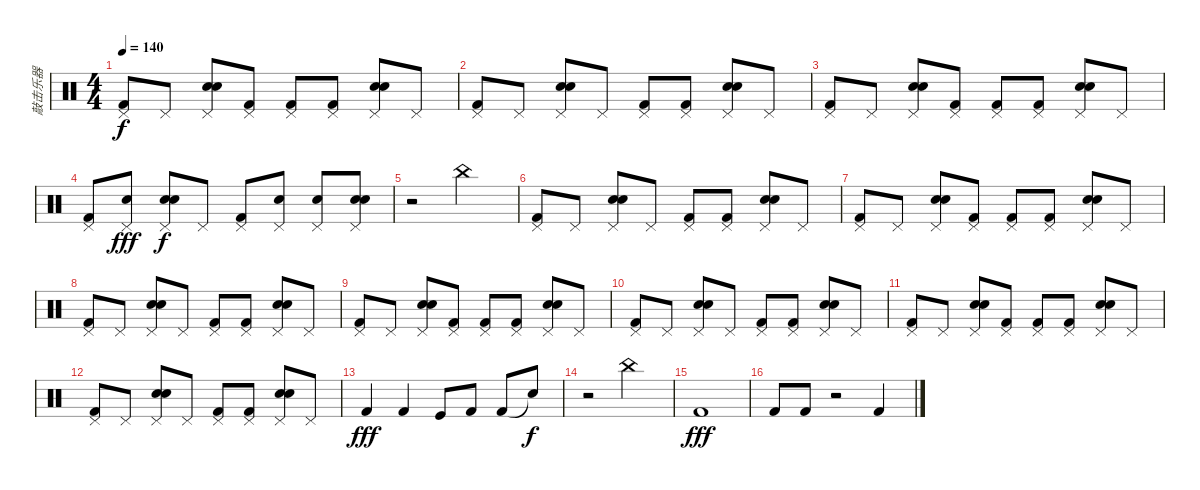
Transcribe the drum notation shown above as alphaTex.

\track ("敲击乐器" "敲击乐器") {instrument percussion}
\staff {score}
\articulation defaults
\ts (4 4)
\tempo 140
\clef neutral
\ks c
("Kick (hit) 2" "Pedal Hi-Hat (hit)").8{dy f} "Pedal Hi-Hat (hit)".8 ("Snare (hit) 2" "Electric Snare (hit)" "Pedal Hi-Hat (hit)").8 ("Kick (hit) 2" "Pedal Hi-Hat (hit)").8 ("Kick (hit) 2" "Pedal Hi-Hat (hit)").8 ("Kick (hit) 2" "Pedal Hi-Hat (hit)").8 ("Snare (hit) 2" "Electric Snare (hit)" "Pedal Hi-Hat (hit)").8 "Pedal Hi-Hat (hit)".8 |
("Kick (hit) 2" "Pedal Hi-Hat (hit)").8 "Pedal Hi-Hat (hit)".8 ("Snare (hit) 2" "Electric Snare (hit)" "Pedal Hi-Hat (hit)").8 "Pedal Hi-Hat (hit)".8 ("Kick (hit) 2" "Pedal Hi-Hat (hit)").8 ("Kick (hit) 2" "Pedal Hi-Hat (hit)").8 ("Snare (hit) 2" "Electric Snare (hit)" "Pedal Hi-Hat (hit)").8 "Pedal Hi-Hat (hit)".8 |
("Kick (hit) 2" "Pedal Hi-Hat (hit)").8 "Pedal Hi-Hat (hit)".8 ("Snare (hit) 2" "Electric Snare (hit)" "Pedal Hi-Hat (hit)").8 ("Kick (hit) 2" "Pedal Hi-Hat (hit)").8 ("Kick (hit) 2" "Pedal Hi-Hat (hit)").8 ("Kick (hit) 2" "Pedal Hi-Hat (hit)").8 ("Snare (hit) 2" "Electric Snare (hit)" "Pedal Hi-Hat (hit)").8 "Pedal Hi-Hat (hit)".8 |
("Kick (hit) 2" "Pedal Hi-Hat (hit)").8 ("Snare (hit) 2" "Pedal Hi-Hat (hit)").8{dy fff} ("Snare (hit) 2" "Electric Snare (hit)" "Pedal Hi-Hat (hit)").8{dy f} "Pedal Hi-Hat (hit)".8 ("Kick (hit) 2" "Pedal Hi-Hat (hit)").8 ("Electric Snare (hit)" "Pedal Hi-Hat (hit)").8 ("Electric Snare (hit)" "Pedal Hi-Hat (hit)").8 ("Snare (hit) 2" "Electric Snare (hit)" "Pedal Hi-Hat (hit)").8 |
r.2 "China (hit)".2 |
("Kick (hit) 2" "Pedal Hi-Hat (hit)").8 "Pedal Hi-Hat (hit)".8 ("Snare (hit) 2" "Electric Snare (hit)" "Pedal Hi-Hat (hit)").8 "Pedal Hi-Hat (hit)".8 ("Kick (hit) 2" "Pedal Hi-Hat (hit)").8 ("Kick (hit) 2" "Pedal Hi-Hat (hit)").8 ("Snare (hit) 2" "Electric Snare (hit)" "Pedal Hi-Hat (hit)").8 "Pedal Hi-Hat (hit)".8 |
("Kick (hit) 2" "Pedal Hi-Hat (hit)").8 "Pedal Hi-Hat (hit)".8 ("Snare (hit) 2" "Electric Snare (hit)" "Pedal Hi-Hat (hit)").8 ("Kick (hit) 2" "Pedal Hi-Hat (hit)").8 ("Kick (hit) 2" "Pedal Hi-Hat (hit)").8 ("Kick (hit) 2" "Pedal Hi-Hat (hit)").8 ("Snare (hit) 2" "Electric Snare (hit)" "Pedal Hi-Hat (hit)").8 "Pedal Hi-Hat (hit)".8 |
("Kick (hit) 2" "Pedal Hi-Hat (hit)").8 "Pedal Hi-Hat (hit)".8 ("Snare (hit) 2" "Electric Snare (hit)" "Pedal Hi-Hat (hit)").8 "Pedal Hi-Hat (hit)".8 ("Kick (hit) 2" "Pedal Hi-Hat (hit)").8 ("Kick (hit) 2" "Pedal Hi-Hat (hit)").8 ("Snare (hit) 2" "Electric Snare (hit)" "Pedal Hi-Hat (hit)").8 "Pedal Hi-Hat (hit)".8 |
("Kick (hit) 2" "Pedal Hi-Hat (hit)").8 "Pedal Hi-Hat (hit)".8 ("Snare (hit) 2" "Electric Snare (hit)" "Pedal Hi-Hat (hit)").8 ("Kick (hit) 2" "Pedal Hi-Hat (hit)").8 ("Kick (hit) 2" "Pedal Hi-Hat (hit)").8 ("Kick (hit) 2" "Pedal Hi-Hat (hit)").8 ("Snare (hit) 2" "Electric Snare (hit)" "Pedal Hi-Hat (hit)").8 "Pedal Hi-Hat (hit)".8 |
("Kick (hit) 2" "Pedal Hi-Hat (hit)").8 "Pedal Hi-Hat (hit)".8 ("Snare (hit) 2" "Electric Snare (hit)" "Pedal Hi-Hat (hit)").8 "Pedal Hi-Hat (hit)".8 ("Kick (hit) 2" "Pedal Hi-Hat (hit)").8 ("Kick (hit) 2" "Pedal Hi-Hat (hit)").8 ("Snare (hit) 2" "Electric Snare (hit)" "Pedal Hi-Hat (hit)").8 "Pedal Hi-Hat (hit)".8 |
("Kick (hit) 2" "Pedal Hi-Hat (hit)").8 "Pedal Hi-Hat (hit)".8 ("Snare (hit) 2" "Electric Snare (hit)" "Pedal Hi-Hat (hit)").8 ("Kick (hit) 2" "Pedal Hi-Hat (hit)").8 ("Kick (hit) 2" "Pedal Hi-Hat (hit)").8 ("Kick (hit) 2" "Pedal Hi-Hat (hit)").8 ("Snare (hit) 2" "Electric Snare (hit)" "Pedal Hi-Hat (hit)").8 "Pedal Hi-Hat (hit)".8 |
("Kick (hit) 2" "Pedal Hi-Hat (hit)").8 "Pedal Hi-Hat (hit)".8 ("Snare (hit) 2" "Electric Snare (hit)" "Pedal Hi-Hat (hit)").8 "Pedal Hi-Hat (hit)".8 ("Kick (hit) 2" "Pedal Hi-Hat (hit)").8 ("Kick (hit) 2" "Pedal Hi-Hat (hit)").8 ("Snare (hit) 2" "Electric Snare (hit)" "Pedal Hi-Hat (hit)").8 "Pedal Hi-Hat (hit)".8 |
"Kick (hit) 2".4{dy fff} "Kick (hit) 2".4 "Kick (hit)".8 "Kick (hit) 2".8 "Kick (hit) 2".8 "Snare (hit)"{t}.8{dy f} |
r.2 "China (hit)".2 |
"Kick (hit) 2".1{dy fff} |
"Kick (hit) 2".8 "Kick (hit) 2".8 r.2 "Kick (hit) 2".4
